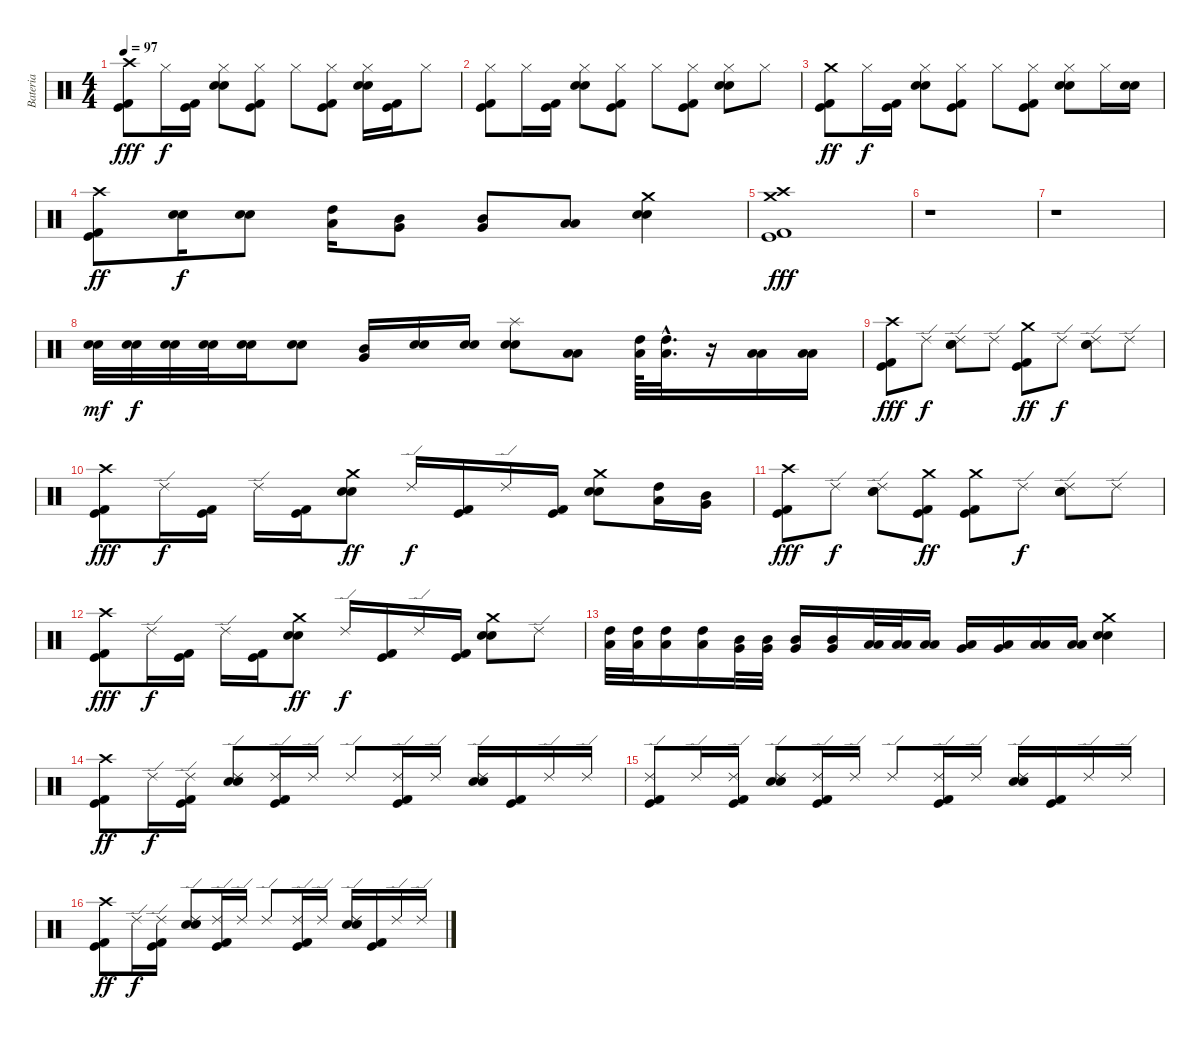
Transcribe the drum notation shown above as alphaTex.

\track ("Bateria" "Bateria") {instrument percussion}
\staff {score}
\articulation defaults
\ts (4 4)
\tempo 97
\clef neutral
\ks c
("Crash high (hit)" "Kick (hit) 2" "Kick (hit)").8{dy fff} "Hi-Hat (closed)".16{dy f} ("Kick (hit) 2" "Kick (hit)").16 ("Hi-Hat (closed)" "Electric Snare (hit)" "Snare (hit) 2").8 ("Hi-Hat (closed)" "Kick (hit) 2" "Kick (hit)").8 "Hi-Hat (closed)".8 ("Hi-Hat (closed)" "Kick (hit) 2" "Kick (hit)").8 ("Hi-Hat (closed)" "Electric Snare (hit)" "Snare (hit) 2").16 ("Kick (hit) 2" "Kick (hit)").16 "Hi-Hat (closed)".8 |
("Hi-Hat (closed)" "Kick (hit) 2" "Kick (hit)").8 "Hi-Hat (closed)".16 ("Kick (hit) 2" "Kick (hit)").16 ("Hi-Hat (closed)" "Electric Snare (hit)" "Snare (hit) 2").8 ("Hi-Hat (closed)" "Kick (hit) 2" "Kick (hit)").8 "Hi-Hat (closed)".8 ("Hi-Hat (closed)" "Kick (hit) 2" "Kick (hit)").8 ("Hi-Hat (closed)" "Electric Snare (hit)" "Snare (hit) 2").8 "Hi-Hat (closed)".8 |
("Crash medium (hit)" "Kick (hit) 2" "Kick (hit)").8{dy ff} "Hi-Hat (closed)".16{dy f} ("Kick (hit) 2" "Kick (hit)").16 ("Hi-Hat (closed)" "Electric Snare (hit)" "Snare (hit) 2").8 ("Hi-Hat (closed)" "Kick (hit) 2" "Kick (hit)").8 "Hi-Hat (closed)".8 ("Hi-Hat (closed)" "Kick (hit) 2" "Kick (hit)").8 ("Hi-Hat (closed)" "Electric Snare (hit)" "Snare (hit) 2").8 "Hi-Hat (closed)".16 ("Electric Snare (hit)" "Snare (hit) 2").16 |
("Crash high (hit)" "Kick (hit) 2" "Kick (hit)").8{dy ff} ("Electric Snare (hit)" "Snare (hit) 2").16{dy f} ("Electric Snare (hit)" "Snare (hit) 2").8 ("High Tom (hit)" "Low Tom (hit)").16 ("Mid Tom (hit)" "Very Low Tom (hit)").8 ("Mid Tom (hit)" "Very Low Tom (hit)").8 ("Low Tom (hit)" "Low Floor Tom (hit)").8 ("Crash medium (hit)" "Electric Snare (hit)" "Snare (hit) 2").4 |
("Crash high (hit)" "Crash medium (hit)" "Kick (hit) 2" "Kick (hit)").1{dy fff} |
r.1 |
r.1 |
("Electric Snare (hit)" "Snare (hit) 2").32{dy mf} ("Electric Snare (hit)" "Snare (hit) 2").32{dy f} ("Electric Snare (hit)" "Snare (hit) 2").32 ("Electric Snare (hit)" "Snare (hit) 2").32 ("Electric Snare (hit)" "Snare (hit) 2").16 ("Electric Snare (hit)" "Snare (hit) 2").8 ("Mid Tom (hit)" "Very Low Tom (hit)").16 ("Electric Snare (hit)" "Snare (hit) 2").16 ("Electric Snare (hit)" "Snare (hit) 2").16 ("Splash (hit)" "Electric Snare (hit)" "Snare (hit) 2").8 ("Low Tom (hit)" "Low Floor Tom (hit)").8 ("High Tom (hit)" "Low Tom (hit)").64 ("High Tom (hit)"{hac} "Low Tom (hit)"{hac}).32{d} r.16 ("Low Tom (hit)" "Low Floor Tom (hit)").16 ("Low Tom (hit)" "Low Floor Tom (hit)").16 |
("Crash high (hit)" "Kick (hit) 2" "Kick (hit)").8{dy fff} "Ride (edge) 2".8{dy f} ("Ride (edge) 2" "Electric Snare (hit)" "Snare (hit) 2").8 "Ride (edge) 2".8 ("Crash medium (hit)" "Kick (hit) 2" "Kick (hit)").8{dy ff} "Ride (edge) 2".8{dy f} ("Ride (edge) 2" "Electric Snare (hit)" "Snare (hit) 2").8 "Ride (edge) 2".8 |
("Crash high (hit)" "Kick (hit) 2" "Kick (hit)").8{dy fff} "Ride (edge) 2".16{dy f} ("Kick (hit) 2" "Kick (hit)").16 "Ride (edge) 2".16 ("Kick (hit) 2" "Kick (hit)").16 ("Crash medium (hit)" "Electric Snare (hit)" "Snare (hit) 2").8{dy ff} "Ride (edge) 2".16{dy f} ("Kick (hit) 2" "Kick (hit)").16 "Ride (edge) 2".16 ("Kick (hit) 2" "Kick (hit)").16 ("Crash medium (hit)" "Electric Snare (hit)" "Snare (hit) 2").8 ("High Tom (hit)" "Low Tom (hit)").16 ("Mid Tom (hit)" "Very Low Tom (hit)").16 |
("Crash high (hit)" "Kick (hit) 2" "Kick (hit)").8{dy fff} "Ride (edge) 2".8{dy f} ("Ride (edge) 2" "Electric Snare (hit)" "Snare (hit) 2").8 ("Crash medium (hit)" "Kick (hit) 2" "Kick (hit)").8{dy ff} ("Crash medium (hit)" "Kick (hit) 2" "Kick (hit)").8 "Ride (edge) 2".8{dy f} ("Ride (edge) 2" "Electric Snare (hit)" "Snare (hit) 2").8 "Ride (edge) 2".8 |
("Crash high (hit)" "Kick (hit) 2" "Kick (hit)").8{dy fff} "Ride (edge) 2".16{dy f} ("Kick (hit) 2" "Kick (hit)").16 "Ride (edge) 2".16 ("Kick (hit) 2" "Kick (hit)").16 ("Crash medium (hit)" "Electric Snare (hit)" "Snare (hit) 2").8{dy ff} "Ride (edge) 2".16{dy f} ("Kick (hit) 2" "Kick (hit)").16 "Ride (edge) 2".16 ("Kick (hit) 2" "Kick (hit)").16 ("Crash medium (hit)" "Electric Snare (hit)" "Snare (hit) 2").8 "Ride (edge) 2".8 |
("High Tom (hit)" "Low Tom (hit)").32 ("High Tom (hit)" "Low Tom (hit)").32 ("High Tom (hit)" "Low Tom (hit)").16 ("High Tom (hit)" "Low Tom (hit)").16 ("Mid Tom (hit)" "Very Low Tom (hit)").32 ("Mid Tom (hit)" "Very Low Tom (hit)").32 ("Mid Tom (hit)" "Very Low Tom (hit)").16 ("Mid Tom (hit)" "Very Low Tom (hit)").16 ("Low Tom (hit)" "Low Floor Tom (hit)").32 ("Low Tom (hit)" "Low Floor Tom (hit)").32 ("Low Tom (hit)" "Low Floor Tom (hit)").16 ("Low Tom (hit)" "Very Low Tom (hit)").16 ("Low Tom (hit)" "Very Low Tom (hit)").16 ("Low Tom (hit)" "Low Floor Tom (hit)").16 ("Low Tom (hit)" "Low Floor Tom (hit)").16 ("Crash medium (hit)" "Electric Snare (hit)" "Snare (hit) 2").4 |
("Crash high (hit)" "Kick (hit) 2" "Kick (hit)").8{dy ff} "Ride (edge) 2".16{dy f} ("Ride (edge) 2" "Kick (hit) 2" "Kick (hit)").16 ("Ride (edge) 2" "Electric Snare (hit)" "Snare (hit) 2").8 ("Ride (edge) 2" "Kick (hit) 2" "Kick (hit)").16 "Ride (edge) 2".16 "Ride (edge) 2".8 ("Ride (edge) 2" "Kick (hit) 2" "Kick (hit)").16 "Ride (edge) 2".16 ("Ride (edge) 2" "Electric Snare (hit)" "Snare (hit) 2").16 ("Kick (hit) 2" "Kick (hit)").16 "Ride (edge) 2".16 "Ride (edge) 2".16 |
("Ride (edge) 2" "Kick (hit) 2" "Kick (hit)").8 "Ride (edge) 2".16 ("Ride (edge) 2" "Kick (hit) 2" "Kick (hit)").16 ("Ride (edge) 2" "Electric Snare (hit)" "Snare (hit) 2").8 ("Ride (edge) 2" "Kick (hit) 2" "Kick (hit)").16 "Ride (edge) 2".16 "Ride (edge) 2".8 ("Ride (edge) 2" "Kick (hit) 2" "Kick (hit)").16 "Ride (edge) 2".16 ("Ride (edge) 2" "Electric Snare (hit)" "Snare (hit) 2").16 ("Kick (hit) 2" "Kick (hit)").16 "Ride (edge) 2".16 "Ride (edge) 2".16 |
("Crash high (hit)" "Kick (hit) 2" "Kick (hit)").8{dy ff} "Ride (edge) 2".16{dy f} ("Ride (edge) 2" "Kick (hit) 2" "Kick (hit)").16 ("Ride (edge) 2" "Electric Snare (hit)" "Snare (hit) 2").8 ("Ride (edge) 2" "Kick (hit) 2" "Kick (hit)").16 "Ride (edge) 2".16 "Ride (edge) 2".8 ("Ride (edge) 2" "Kick (hit) 2" "Kick (hit)").16 "Ride (edge) 2".16 ("Ride (edge) 2" "Electric Snare (hit)" "Snare (hit) 2").16 ("Kick (hit) 2" "Kick (hit)").16 "Ride (edge) 2".16 "Ride (edge) 2".16
